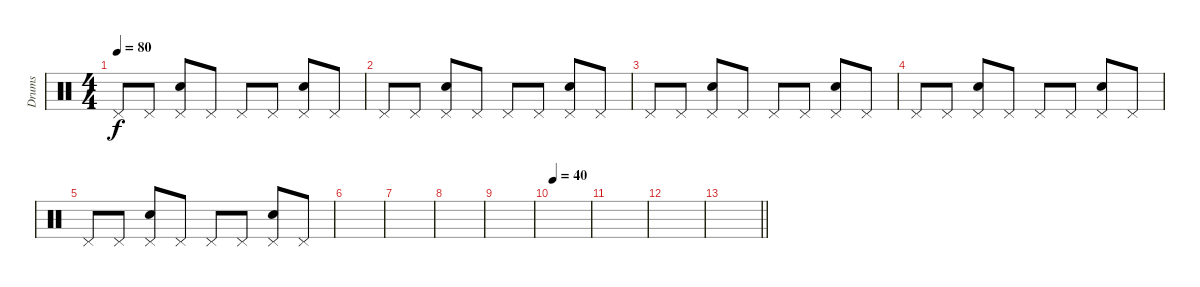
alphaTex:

\track ("Drums" "Drums") {instrument percussion}
\staff {score}
\articulation defaults
\ts (4 4)
\tempo 80
\clef neutral
\ks c "Pedal Hi-Hat (hit)".8{dy f} "Pedal Hi-Hat (hit)".8
("Pedal Hi-Hat (hit)" "Snare (hit) 2").8 "Pedal Hi-Hat (hit)".8 "Pedal Hi-Hat (hit)".8 "Pedal Hi-Hat (hit)".8 ("Pedal Hi-Hat (hit)" "Snare (hit) 2").8 "Pedal Hi-Hat (hit)".8 |
"Pedal Hi-Hat (hit)".8 "Pedal Hi-Hat (hit)".8 ("Pedal Hi-Hat (hit)" "Snare (hit) 2").8 "Pedal Hi-Hat (hit)".8 "Pedal Hi-Hat (hit)".8 "Pedal Hi-Hat (hit)".8 ("Pedal Hi-Hat (hit)" "Snare (hit) 2").8 "Pedal Hi-Hat (hit)".8 |
"Pedal Hi-Hat (hit)".8 "Pedal Hi-Hat (hit)".8 ("Pedal Hi-Hat (hit)" "Snare (hit) 2").8 "Pedal Hi-Hat (hit)".8 "Pedal Hi-Hat (hit)".8 "Pedal Hi-Hat (hit)".8 ("Pedal Hi-Hat (hit)" "Snare (hit) 2").8 "Pedal Hi-Hat (hit)".8 |
"Pedal Hi-Hat (hit)".8 "Pedal Hi-Hat (hit)".8 ("Pedal Hi-Hat (hit)" "Snare (hit) 2").8 "Pedal Hi-Hat (hit)".8 "Pedal Hi-Hat (hit)".8 "Pedal Hi-Hat (hit)".8 ("Pedal Hi-Hat (hit)" "Snare (hit) 2").8 "Pedal Hi-Hat (hit)".8 |
"Pedal Hi-Hat (hit)".8 "Pedal Hi-Hat (hit)".8 ("Pedal Hi-Hat (hit)" "Snare (hit) 2").8 "Pedal Hi-Hat (hit)".8 "Pedal Hi-Hat (hit)".8 "Pedal Hi-Hat (hit)".8 ("Pedal Hi-Hat (hit)" "Snare (hit) 2").8 "Pedal Hi-Hat (hit)".8 |
|
|
|
|
\tempo 40
|
|
|
\barLineRight lightlight
